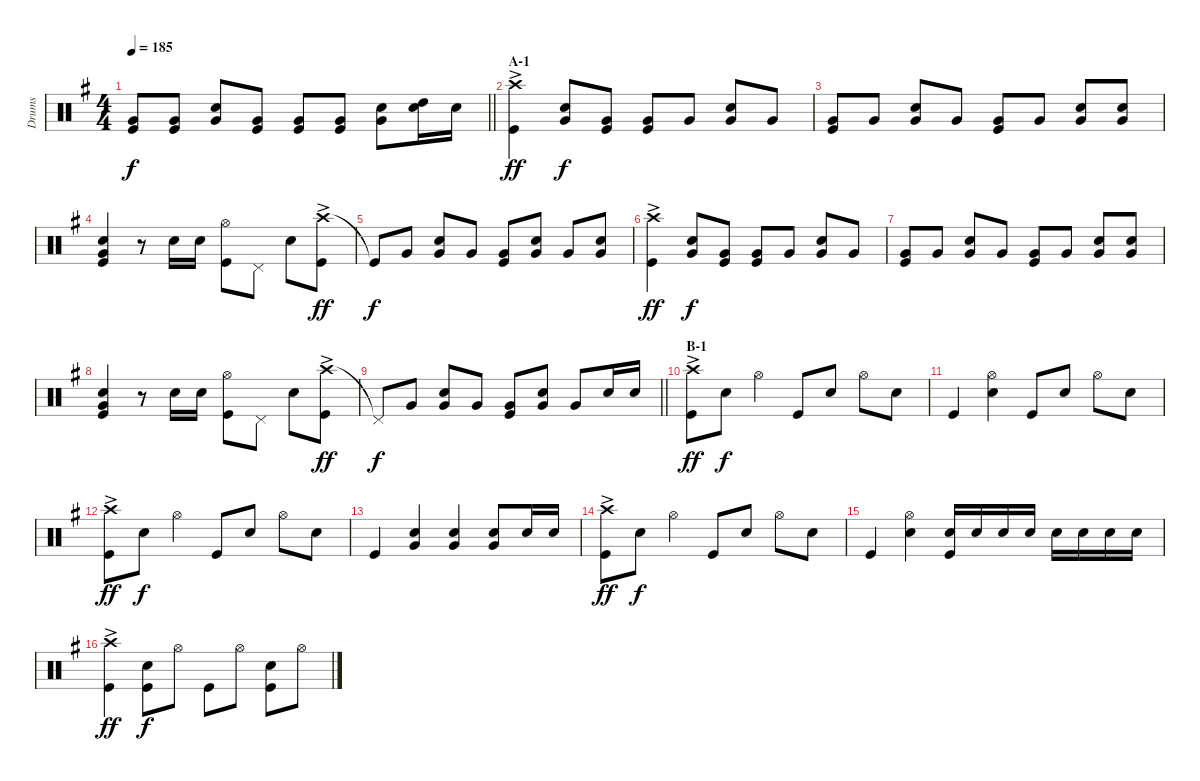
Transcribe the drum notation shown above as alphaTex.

\track ("Drums" "Drums") {instrument percussion}
\staff {score}
\articulation defaults
\ts (4 4)
\tempo 185
\clef neutral
\barLineRight lightlight
\ks g
("Very Low Tom (hit)" "Kick (hit)").8{dy f} ("Very Low Tom (hit)" "Kick (hit)").8 ("Snare (hit) 2" "Very Low Tom (hit)").8 ("Very Low Tom (hit)" "Kick (hit)").8 ("Very Low Tom (hit)" "Kick (hit)").8 ("Very Low Tom (hit)" "Kick (hit)").8 ("Snare (hit) 2" "Very Low Tom (hit)").8 ("High Tom (hit)" "Snare (hit) 2").16 "Snare (hit) 2".16 |
\section ("" "A-1")
("Crash high (hit)"{ac} "Kick (hit)").4{dy ff} ("Snare (hit) 2" "Very Low Tom (hit)").8{dy f} ("Very Low Tom (hit)" "Kick (hit)").8 ("Very Low Tom (hit)" "Kick (hit)").8 "Very Low Tom (hit)".8 ("Snare (hit) 2" "Very Low Tom (hit)").8 "Very Low Tom (hit)".8 |
("Very Low Tom (hit)" "Kick (hit)").8 "Very Low Tom (hit)".8 ("Snare (hit) 2" "Very Low Tom (hit)").8 "Very Low Tom (hit)".8 ("Very Low Tom (hit)" "Kick (hit)").8 "Very Low Tom (hit)".8 ("Snare (hit) 2" "Very Low Tom (hit)").8 ("Snare (hit) 2" "Very Low Tom (hit)").8 |
("Snare (hit) 2" "Very Low Tom (hit)" "Kick (hit)").4 r.8 "Snare (hit) 2".16 "Snare (hit) 2".16 ("Hi-Hat (open)" "Kick (hit)").8 "Pedal Hi-Hat (hit)".8 "Snare (hit) 2".8 ("Crash high (hit)"{ac} "Kick (hit)").8{dy ff} |
"Kick (hit)"{t}.8{dy f} "Very Low Tom (hit)".8 ("Snare (hit) 2" "Very Low Tom (hit)").8 "Very Low Tom (hit)".8 ("Very Low Tom (hit)" "Kick (hit)").8 ("Snare (hit) 2" "Very Low Tom (hit)").8 "Very Low Tom (hit)".8 ("Snare (hit) 2" "Very Low Tom (hit)").8 |
("Crash high (hit)"{ac} "Kick (hit)").4{dy ff} ("Snare (hit) 2" "Very Low Tom (hit)").8{dy f} ("Very Low Tom (hit)" "Kick (hit)").8 ("Very Low Tom (hit)" "Kick (hit)").8 "Very Low Tom (hit)".8 ("Snare (hit) 2" "Very Low Tom (hit)").8 "Very Low Tom (hit)".8 |
("Very Low Tom (hit)" "Kick (hit)").8 "Very Low Tom (hit)".8 ("Snare (hit) 2" "Very Low Tom (hit)").8 "Very Low Tom (hit)".8 ("Very Low Tom (hit)" "Kick (hit)").8 "Very Low Tom (hit)".8 ("Snare (hit) 2" "Very Low Tom (hit)").8 ("Snare (hit) 2" "Very Low Tom (hit)").8 |
("Snare (hit) 2" "Very Low Tom (hit)" "Kick (hit)").4 r.8 "Snare (hit) 2".16 "Snare (hit) 2".16 ("Hi-Hat (open)" "Kick (hit)").8 "Pedal Hi-Hat (hit)".8 "Snare (hit) 2".8 ("Crash high (hit)"{ac} "Kick (hit)").8{dy ff} |
\barLineRight lightlight "Pedal Hi-Hat (hit)"{t}.8{dy f} "Very Low Tom (hit)".8
("Snare (hit) 2" "Very Low Tom (hit)").8 "Very Low Tom (hit)".8 ("Very Low Tom (hit)" "Kick (hit)").8 ("Snare (hit) 2" "Very Low Tom (hit)").8 "Very Low Tom (hit)".8 "Snare (hit) 2".16 "Snare (hit) 2".16 |
\section ("" "B-1")
("Crash high (hit)"{ac} "Kick (hit)").8{dy ff} "Snare (hit) 2".8{dy f} "Hi-Hat (open)".4 "Kick (hit)".8 "Snare (hit) 2".8 "Hi-Hat (open)".8 "Snare (hit) 2".8 |
"Kick (hit)".4 ("Hi-Hat (open)" "Snare (hit) 2").4 "Kick (hit)".8 "Snare (hit) 2".8 "Hi-Hat (open)".8 "Snare (hit) 2".8 |
("Crash high (hit)"{ac} "Kick (hit)").8{dy ff} "Snare (hit) 2".8{dy f} "Hi-Hat (open)".4 "Kick (hit)".8 "Snare (hit) 2".8 "Hi-Hat (open)".8 "Snare (hit) 2".8 |
"Kick (hit)".4 ("Snare (hit) 2" "Very Low Tom (hit)").4 ("Snare (hit) 2" "Very Low Tom (hit)").4 ("Snare (hit) 2" "Very Low Tom (hit)").8 "Snare (hit) 2".16 "Snare (hit) 2".16 |
("Crash high (hit)"{ac} "Kick (hit)").8{dy ff} "Snare (hit) 2".8{dy f} "Hi-Hat (open)".4 "Kick (hit)".8 "Snare (hit) 2".8 "Hi-Hat (open)".8 "Snare (hit) 2".8 |
"Kick (hit)".4 ("Hi-Hat (open)" "Snare (hit) 2").4 ("Kick (hit)" "Snare (hit) 2").16 "Snare (hit) 2".16 "Snare (hit) 2".16 "Snare (hit) 2".16 "Snare (hit) 2".16 "Snare (hit) 2".16 "Snare (hit) 2".16 "Snare (hit) 2".16 |
("Crash high (hit)"{ac} "Kick (hit)").4{dy ff} ("Snare (hit) 2" "Kick (hit)").8{dy f} "Hi-Hat (open)".8 "Kick (hit)".8 "Hi-Hat (open)".8 ("Snare (hit) 2" "Kick (hit)").8 "Hi-Hat (open)".8
